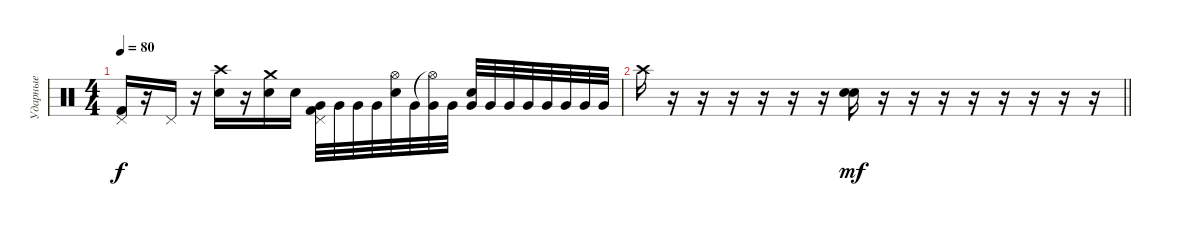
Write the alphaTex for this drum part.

\track ("Ударные" "Ударные") {instrument percussion}
\staff {score}
\articulation defaults
\ts (4 4)
\tempo 80
\clef neutral
\ks c
("Pedal Hi-Hat (hit)" "Kick (hit) 2").16{dy f} r.16 "Pedal Hi-Hat (hit)".16 r.16 ("Crash high (hit)" "Electric Snare (hit)").16 r.16 ("Crash medium (hit)" "Electric Snare (hit)").16 "Electric Snare (hit)".16 ("Pedal Hi-Hat (hit)" "Very Low Tom (hit)" "Kick (hit) 2").32 "Very Low Tom (hit)".32 "Very Low Tom (hit)".32 "Very Low Tom (hit)".32 ("Hi-Hat (open)" "Electric Snare (hit)").32 "Very Low Tom (hit)".32 ("Hi-Hat (open)"{t} "Very Low Tom (hit)").32 "Very Low Tom (hit)".32 ("Very Low Tom (hit)" "Electric Snare (hit)").32 "Very Low Tom (hit)".32 "Very Low Tom (hit)".32 "Very Low Tom (hit)".32 "Very Low Tom (hit)".32 "Very Low Tom (hit)".32 "Very Low Tom (hit)".32 "Very Low Tom (hit)".32 |
\barLineRight lightlight "Crash high (hit)".16
r.16 r.16 r.16 r.16 r.16 r.16 ("Electric Snare (hit)" "Electric Snare (hit)").16{bd 120 dy mf} r.16 r.16 r.16 r.16 r.16 r.16 r.16 r.16
